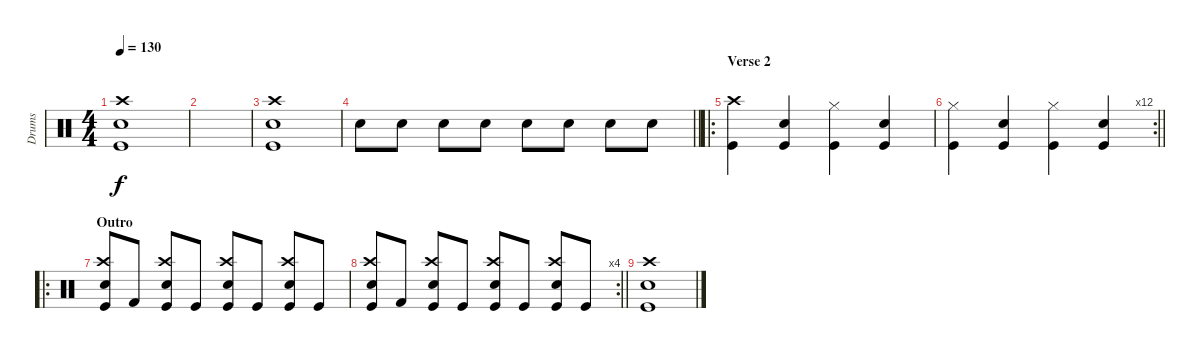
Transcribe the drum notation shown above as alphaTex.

\track ("Drums" "Drums") {instrument percussion}
\staff {score}
\articulation defaults
\ts (4 4)
\tempo 130
\clef neutral
\ks c
("Snare (hit) 2" "Crash high (hit)" "Kick (hit)").1{dy f} |
|
("Snare (hit) 2" "Crash high (hit)" "Kick (hit)").1 |
\barLineRight lightlight "Snare (hit) 2".8 "Snare (hit) 2".8 "Snare (hit) 2".8 "Snare (hit) 2".8 "Snare (hit) 2".8 "Snare (hit) 2".8 "Snare (hit) 2".8 "Snare (hit) 2".8
|
\ro
\section ("" "Verse 2")
("Crash high (hit)" "Kick (hit)").4 ("Snare (hit) 2" "Kick (hit)").4 ("Hi-Hat (closed)" "Kick (hit)").4 ("Snare (hit) 2" "Kick (hit)").4 |
\rc 12
\barLineRight lightlight
("Hi-Hat (closed)" "Kick (hit)").4 ("Snare (hit) 2" "Kick (hit)").4 ("Hi-Hat (closed)" "Kick (hit)").4 ("Snare (hit) 2" "Kick (hit)").4 |
\ro
\section ("" "Outro")
("Snare (hit) 2" "Crash high (hit)" "Kick (hit)").8 "Kick (hit) 2".8 ("Snare (hit) 2" "Crash high (hit)" "Kick (hit)").8 "Kick (hit)".8 ("Snare (hit) 2" "Crash high (hit)" "Kick (hit)").8 "Kick (hit)".8 ("Snare (hit) 2" "Crash high (hit)" "Kick (hit)").8 "Kick (hit)".8 |
\rc 4
\barLineRight lightlight
("Snare (hit) 2" "Crash high (hit)" "Kick (hit)").8 "Kick (hit) 2".8 ("Snare (hit) 2" "Crash high (hit)" "Kick (hit)").8 "Kick (hit)".8 ("Snare (hit) 2" "Crash high (hit)" "Kick (hit)").8 "Kick (hit)".8 ("Snare (hit) 2" "Crash high (hit)" "Kick (hit)").8 "Kick (hit)".8 |
("Snare (hit) 2" "Crash high (hit)" "Kick (hit)").1
